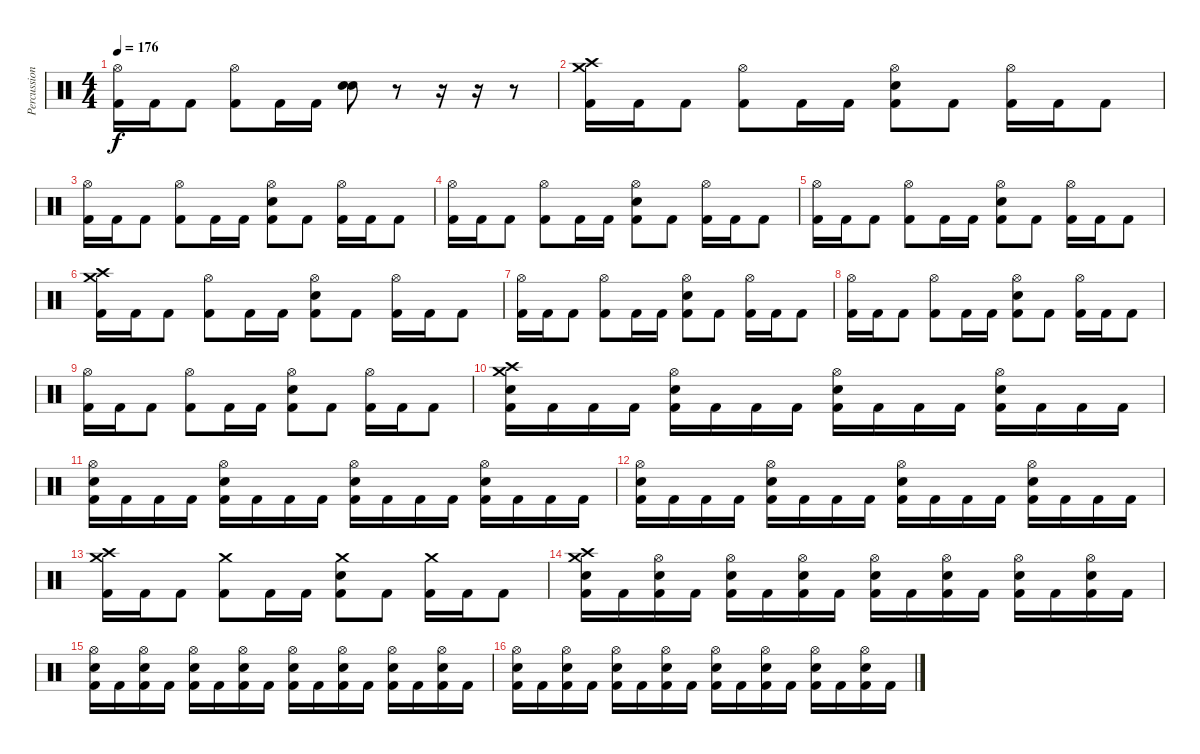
\track ("Percussion" "Percussion") {instrument percussion}
\staff {score}
\articulation defaults
\ts (4 4)
\tempo 176
\clef neutral
\ks c
("Hi-Hat (open)" "Kick (hit) 2").16{dy f} "Kick (hit) 2".16 "Kick (hit) 2".8 ("Hi-Hat (open)" "Kick (hit) 2").8 "Kick (hit) 2".16 "Kick (hit) 2".16 ("Snare (hit) 2" "Snare (hit) 2").8 r.8 r.16 r.16 r.8 |
("Crash high (hit)" "Crash medium (hit)" "Kick (hit) 2").16 "Kick (hit) 2".16 "Kick (hit) 2".8 ("Hi-Hat (open)" "Kick (hit) 2").8 "Kick (hit) 2".16 "Kick (hit) 2".16 ("Hi-Hat (open)" "Snare (hit) 2" "Kick (hit) 2").8 "Kick (hit) 2".8 ("Hi-Hat (open)" "Kick (hit) 2").16 "Kick (hit) 2".16 "Kick (hit) 2".8 |
("Hi-Hat (open)" "Kick (hit) 2").16 "Kick (hit) 2".16 "Kick (hit) 2".8 ("Hi-Hat (open)" "Kick (hit) 2").8 "Kick (hit) 2".16 "Kick (hit) 2".16 ("Hi-Hat (open)" "Snare (hit) 2" "Kick (hit) 2").8 "Kick (hit) 2".8 ("Hi-Hat (open)" "Kick (hit) 2").16 "Kick (hit) 2".16 "Kick (hit) 2".8 |
("Hi-Hat (open)" "Kick (hit) 2").16 "Kick (hit) 2".16 "Kick (hit) 2".8 ("Hi-Hat (open)" "Kick (hit) 2").8 "Kick (hit) 2".16 "Kick (hit) 2".16 ("Hi-Hat (open)" "Snare (hit) 2" "Kick (hit) 2").8 "Kick (hit) 2".8 ("Hi-Hat (open)" "Kick (hit) 2").16 "Kick (hit) 2".16 "Kick (hit) 2".8 |
("Hi-Hat (open)" "Kick (hit) 2").16 "Kick (hit) 2".16 "Kick (hit) 2".8 ("Hi-Hat (open)" "Kick (hit) 2").8 "Kick (hit) 2".16 "Kick (hit) 2".16 ("Hi-Hat (open)" "Snare (hit) 2" "Kick (hit) 2").8 "Kick (hit) 2".8 ("Hi-Hat (open)" "Kick (hit) 2").16 "Kick (hit) 2".16 "Kick (hit) 2".8 |
("Crash high (hit)" "Crash medium (hit)" "Kick (hit) 2").16 "Kick (hit) 2".16 "Kick (hit) 2".8 ("Hi-Hat (open)" "Kick (hit) 2").8 "Kick (hit) 2".16 "Kick (hit) 2".16 ("Hi-Hat (open)" "Snare (hit) 2" "Kick (hit) 2").8 "Kick (hit) 2".8 ("Hi-Hat (open)" "Kick (hit) 2").16 "Kick (hit) 2".16 "Kick (hit) 2".8 |
("Hi-Hat (open)" "Kick (hit) 2").16 "Kick (hit) 2".16 "Kick (hit) 2".8 ("Hi-Hat (open)" "Kick (hit) 2").8 "Kick (hit) 2".16 "Kick (hit) 2".16 ("Hi-Hat (open)" "Snare (hit) 2" "Kick (hit) 2").8 "Kick (hit) 2".8 ("Hi-Hat (open)" "Kick (hit) 2").16 "Kick (hit) 2".16 "Kick (hit) 2".8 |
("Hi-Hat (open)" "Kick (hit) 2").16 "Kick (hit) 2".16 "Kick (hit) 2".8 ("Hi-Hat (open)" "Kick (hit) 2").8 "Kick (hit) 2".16 "Kick (hit) 2".16 ("Hi-Hat (open)" "Snare (hit) 2" "Kick (hit) 2").8 "Kick (hit) 2".8 ("Hi-Hat (open)" "Kick (hit) 2").16 "Kick (hit) 2".16 "Kick (hit) 2".8 |
("Hi-Hat (open)" "Kick (hit) 2").16 "Kick (hit) 2".16 "Kick (hit) 2".8 ("Hi-Hat (open)" "Kick (hit) 2").8 "Kick (hit) 2".16 "Kick (hit) 2".16 ("Hi-Hat (open)" "Snare (hit) 2" "Kick (hit) 2").8 "Kick (hit) 2".8 ("Hi-Hat (open)" "Kick (hit) 2").16 "Kick (hit) 2".16 "Kick (hit) 2".8 |
("Crash high (hit)" "Crash medium (hit)" "Snare (hit) 2" "Kick (hit) 2").16 "Kick (hit) 2".16 "Kick (hit) 2".16 "Kick (hit) 2".16 ("Hi-Hat (open)" "Snare (hit) 2" "Kick (hit) 2").16 "Kick (hit) 2".16 "Kick (hit) 2".16 "Kick (hit) 2".16 ("Hi-Hat (open)" "Snare (hit) 2" "Kick (hit) 2").16 "Kick (hit) 2".16 "Kick (hit) 2".16 "Kick (hit) 2".16 ("Hi-Hat (open)" "Snare (hit) 2" "Kick (hit) 2").16 "Kick (hit) 2".16 "Kick (hit) 2".16 "Kick (hit) 2".16 |
("Hi-Hat (open)" "Snare (hit) 2" "Kick (hit) 2").16 "Kick (hit) 2".16 "Kick (hit) 2".16 "Kick (hit) 2".16 ("Hi-Hat (open)" "Snare (hit) 2" "Kick (hit) 2").16 "Kick (hit) 2".16 "Kick (hit) 2".16 "Kick (hit) 2".16 ("Hi-Hat (open)" "Snare (hit) 2" "Kick (hit) 2").16 "Kick (hit) 2".16 "Kick (hit) 2".16 "Kick (hit) 2".16 ("Hi-Hat (open)" "Snare (hit) 2" "Kick (hit) 2").16 "Kick (hit) 2".16 "Kick (hit) 2".16 "Kick (hit) 2".16 |
("Hi-Hat (open)" "Snare (hit) 2" "Kick (hit) 2").16 "Kick (hit) 2".16 "Kick (hit) 2".16 "Kick (hit) 2".16 ("Hi-Hat (open)" "Snare (hit) 2" "Kick (hit) 2").16 "Kick (hit) 2".16 "Kick (hit) 2".16 "Kick (hit) 2".16 ("Hi-Hat (open)" "Snare (hit) 2" "Kick (hit) 2").16 "Kick (hit) 2".16 "Kick (hit) 2".16 "Kick (hit) 2".16 ("Hi-Hat (open)" "Snare (hit) 2" "Kick (hit) 2").16 "Kick (hit) 2".16 "Kick (hit) 2".16 "Kick (hit) 2".16 |
("Crash high (hit)" "Crash medium (hit)" "Kick (hit) 2").16 "Kick (hit) 2".16 "Kick (hit) 2".8 ("Crash medium (hit)" "Kick (hit) 2").8 "Kick (hit) 2".16 "Kick (hit) 2".16 ("Crash medium (hit)" "Snare (hit) 2" "Kick (hit) 2").8 "Kick (hit) 2".8 ("Crash medium (hit)" "Kick (hit) 2").16 "Kick (hit) 2".16 "Kick (hit) 2".8 |
("Crash high (hit)" "Crash medium (hit)" "Snare (hit) 2" "Kick (hit) 2").16 "Kick (hit) 2".16 ("Hi-Hat (open)" "Snare (hit) 2" "Kick (hit) 2").16 "Kick (hit) 2".16 ("Hi-Hat (open)" "Snare (hit) 2" "Kick (hit) 2").16 "Kick (hit) 2".16 ("Hi-Hat (open)" "Snare (hit) 2" "Kick (hit) 2").16 "Kick (hit) 2".16 ("Hi-Hat (open)" "Snare (hit) 2" "Kick (hit) 2").16 "Kick (hit) 2".16 ("Hi-Hat (open)" "Snare (hit) 2" "Kick (hit) 2").16 "Kick (hit) 2".16 ("Hi-Hat (open)" "Snare (hit) 2" "Kick (hit) 2").16 "Kick (hit) 2".16 ("Hi-Hat (open)" "Snare (hit) 2" "Kick (hit) 2").16 "Kick (hit) 2".16 |
("Hi-Hat (open)" "Snare (hit) 2" "Kick (hit) 2").16 "Kick (hit) 2".16 ("Hi-Hat (open)" "Snare (hit) 2" "Kick (hit) 2").16 "Kick (hit) 2".16 ("Hi-Hat (open)" "Snare (hit) 2" "Kick (hit) 2").16 "Kick (hit) 2".16 ("Hi-Hat (open)" "Snare (hit) 2" "Kick (hit) 2").16 "Kick (hit) 2".16 ("Hi-Hat (open)" "Snare (hit) 2" "Kick (hit) 2").16 "Kick (hit) 2".16 ("Hi-Hat (open)" "Snare (hit) 2" "Kick (hit) 2").16 "Kick (hit) 2".16 ("Hi-Hat (open)" "Snare (hit) 2" "Kick (hit) 2").16 "Kick (hit) 2".16 ("Hi-Hat (open)" "Snare (hit) 2" "Kick (hit) 2").16 "Kick (hit) 2".16 |
("Hi-Hat (open)" "Snare (hit) 2" "Kick (hit) 2").16 "Kick (hit) 2".16 ("Hi-Hat (open)" "Snare (hit) 2" "Kick (hit) 2").16 "Kick (hit) 2".16 ("Hi-Hat (open)" "Snare (hit) 2" "Kick (hit) 2").16 "Kick (hit) 2".16 ("Hi-Hat (open)" "Snare (hit) 2" "Kick (hit) 2").16 "Kick (hit) 2".16 ("Hi-Hat (open)" "Snare (hit) 2" "Kick (hit) 2").16 "Kick (hit) 2".16 ("Hi-Hat (open)" "Snare (hit) 2" "Kick (hit) 2").16 "Kick (hit) 2".16 ("Hi-Hat (open)" "Snare (hit) 2" "Kick (hit) 2").16 "Kick (hit) 2".16 ("Hi-Hat (open)" "Snare (hit) 2" "Kick (hit) 2").16 "Kick (hit) 2".16
